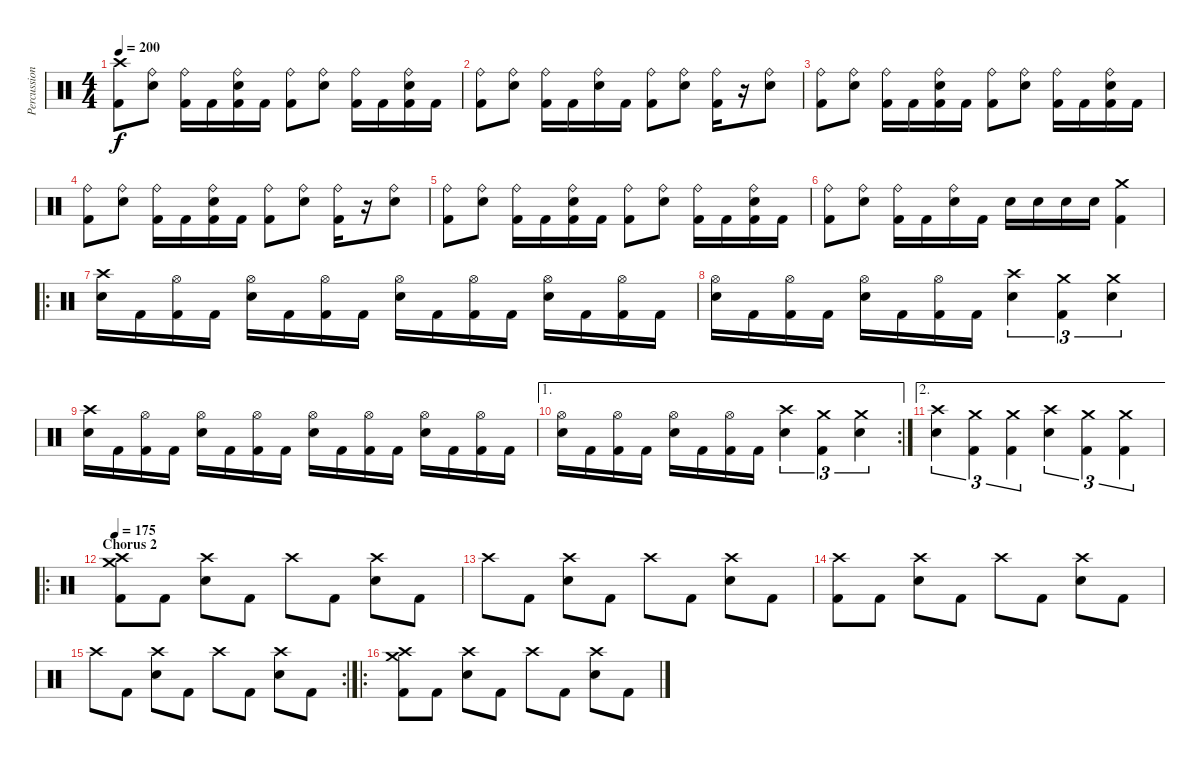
\track ("Percussion" "Percussion") {instrument percussion}
\staff {score}
\articulation defaults
\ts (4 4)
\tempo 200
\clef neutral
\ks c
("Crash high (hit)" "Kick (hit) 2").8{dy f} ("Ride (bell)" "Electric Snare (hit)").8 ("Ride (bell)" "Kick (hit) 2").16 "Kick (hit) 2".16 ("Ride (bell)" "Electric Snare (hit)" "Kick (hit) 2").16 "Kick (hit) 2".16 ("Ride (bell)" "Kick (hit) 2").8 ("Ride (bell)" "Electric Snare (hit)").8 ("Ride (bell)" "Kick (hit) 2").16 "Kick (hit) 2".16 ("Ride (bell)" "Electric Snare (hit)" "Kick (hit) 2").16 "Kick (hit) 2".16 |
("Ride (bell)" "Kick (hit) 2").8 ("Ride (bell)" "Electric Snare (hit)").8 ("Ride (bell)" "Kick (hit) 2").16 "Kick (hit) 2".16 ("Ride (bell)" "Electric Snare (hit)").16 "Kick (hit) 2".16 ("Ride (bell)" "Kick (hit) 2").8 ("Ride (bell)" "Electric Snare (hit)").8 ("Ride (bell)" "Kick (hit) 2").16 r.16 ("Ride (bell)" "Electric Snare (hit)").8 |
("Ride (bell)" "Kick (hit) 2").8 ("Ride (bell)" "Electric Snare (hit)").8 ("Ride (bell)" "Kick (hit) 2").16 "Kick (hit) 2".16 ("Ride (bell)" "Electric Snare (hit)" "Kick (hit) 2").16 "Kick (hit) 2".16 ("Ride (bell)" "Kick (hit) 2").8 ("Ride (bell)" "Electric Snare (hit)").8 ("Ride (bell)" "Kick (hit) 2").16 "Kick (hit) 2".16 ("Ride (bell)" "Electric Snare (hit)" "Kick (hit) 2").16 "Kick (hit) 2".16 |
("Ride (bell)" "Kick (hit) 2").8 ("Ride (bell)" "Electric Snare (hit)").8 ("Ride (bell)" "Kick (hit) 2").16 "Kick (hit) 2".16 ("Ride (bell)" "Electric Snare (hit)" "Kick (hit) 2").16 "Kick (hit) 2".16 ("Ride (bell)" "Kick (hit) 2").8 ("Ride (bell)" "Electric Snare (hit)").8 ("Ride (bell)" "Kick (hit) 2").16 r.16 ("Ride (bell)" "Electric Snare (hit)").8 |
("Ride (bell)" "Kick (hit) 2").8 ("Ride (bell)" "Electric Snare (hit)").8 ("Ride (bell)" "Kick (hit) 2").16 "Kick (hit) 2".16 ("Ride (bell)" "Electric Snare (hit)" "Kick (hit) 2").16 "Kick (hit) 2".16 ("Ride (bell)" "Kick (hit) 2").8 ("Ride (bell)" "Electric Snare (hit)").8 ("Ride (bell)" "Kick (hit) 2").16 "Kick (hit) 2".16 ("Ride (bell)" "Electric Snare (hit)" "Kick (hit) 2").16 "Kick (hit) 2".16 |
("Ride (bell)" "Kick (hit) 2").8 ("Ride (bell)" "Electric Snare (hit)").8 ("Ride (bell)" "Kick (hit) 2").16 "Kick (hit) 2".16 ("Ride (bell)" "Electric Snare (hit)").16 "Kick (hit) 2".16 "Electric Snare (hit)".16 "Electric Snare (hit)".16 "Electric Snare (hit)".16 "Electric Snare (hit)".16 ("Crash medium (hit)" "Kick (hit) 2").4 |
\ro
("Crash high (hit)" "Electric Snare (hit)").16 "Kick (hit) 2".16 ("Hi-Hat (open)" "Kick (hit) 2").16 "Kick (hit) 2".16 ("Hi-Hat (open)" "Electric Snare (hit)").16 "Kick (hit) 2".16 ("Hi-Hat (open)" "Kick (hit) 2").16 "Kick (hit) 2".16 ("Hi-Hat (open)" "Electric Snare (hit)").16 "Kick (hit) 2".16 ("Hi-Hat (open)" "Kick (hit) 2").16 "Kick (hit) 2".16 ("Hi-Hat (open)" "Electric Snare (hit)").16 "Kick (hit) 2".16 ("Hi-Hat (open)" "Kick (hit) 2").16 "Kick (hit) 2".16 |
("Hi-Hat (open)" "Electric Snare (hit)").16 "Kick (hit) 2".16 ("Hi-Hat (open)" "Kick (hit) 2").16 "Kick (hit) 2".16 ("Hi-Hat (open)" "Electric Snare (hit)").16 "Kick (hit) 2".16 ("Hi-Hat (open)" "Kick (hit) 2").16 "Kick (hit) 2".16 ("Crash high (hit)" "Electric Snare (hit)").4{tu (3 2)} ("Crash medium (hit)" "Kick (hit) 2").4{tu (3 2)} ("Crash medium (hit)" "Electric Snare (hit)").4{tu (3 2)} |
("Crash high (hit)" "Electric Snare (hit)").16 "Kick (hit) 2".16 ("Hi-Hat (open)" "Kick (hit) 2").16 "Kick (hit) 2".16 ("Hi-Hat (open)" "Electric Snare (hit)").16 "Kick (hit) 2".16 ("Hi-Hat (open)" "Kick (hit) 2").16 "Kick (hit) 2".16 ("Hi-Hat (open)" "Electric Snare (hit)").16 "Kick (hit) 2".16 ("Hi-Hat (open)" "Kick (hit) 2").16 "Kick (hit) 2".16 ("Hi-Hat (open)" "Electric Snare (hit)").16 "Kick (hit) 2".16 ("Hi-Hat (open)" "Kick (hit) 2").16 "Kick (hit) 2".16 |
\ae 1
\rc 2
("Hi-Hat (open)" "Electric Snare (hit)").16 "Kick (hit) 2".16 ("Hi-Hat (open)" "Kick (hit) 2").16 "Kick (hit) 2".16 ("Hi-Hat (open)" "Electric Snare (hit)").16 "Kick (hit) 2".16 ("Hi-Hat (open)" "Kick (hit) 2").16 "Kick (hit) 2".16 ("Crash high (hit)" "Electric Snare (hit)").4{tu (3 2)} ("Crash medium (hit)" "Kick (hit) 2").4{tu (3 2)} ("Crash medium (hit)" "Electric Snare (hit)").4{tu (3 2)} |
\ae 2
("Crash high (hit)" "Electric Snare (hit)").4{tu (3 2)} ("Crash medium (hit)" "Kick (hit) 2").4{tu (3 2)} ("Crash medium (hit)" "Kick (hit) 2").4{tu (3 2)} ("Crash high (hit)" "Electric Snare (hit)").4{tu (3 2)} ("Crash medium (hit)" "Kick (hit) 2").4{tu (3 2)} ("Crash medium (hit)" "Kick (hit) 2").4{tu (3 2)} |
\ro
\section ("" "Chorus 2")
\tempo 175
("Crash high (hit)" "Crash medium (hit)" "Kick (hit) 2").8 "Kick (hit) 2".8 ("Crash high (hit)" "Electric Snare (hit)").8 "Kick (hit) 2".8 "Crash high (hit)".8 "Kick (hit) 2".8 ("Crash high (hit)" "Electric Snare (hit)").8 "Kick (hit) 2".8 |
"Crash high (hit)".8 "Kick (hit) 2".8 ("Crash high (hit)" "Electric Snare (hit)").8 "Kick (hit) 2".8 "Crash high (hit)".8 "Kick (hit) 2".8 ("Crash high (hit)" "Electric Snare (hit)").8 "Kick (hit) 2".8 |
("Crash high (hit)" "Kick (hit) 2").8 "Kick (hit) 2".8 ("Crash high (hit)" "Electric Snare (hit)").8 "Kick (hit) 2".8 "Crash high (hit)".8 "Kick (hit) 2".8 ("Crash high (hit)" "Electric Snare (hit)").8 "Kick (hit) 2".8 |
\rc 2 "Crash high (hit)".8 "Kick (hit) 2".8
("Crash high (hit)" "Electric Snare (hit)").8 "Kick (hit) 2".8 "Crash high (hit)".8 "Kick (hit) 2".8 ("Crash high (hit)" "Electric Snare (hit)").8 "Kick (hit) 2".8 |
\ro
("Crash high (hit)" "Crash medium (hit)" "Kick (hit) 2").8 "Kick (hit) 2".8 ("Crash high (hit)" "Electric Snare (hit)").8 "Kick (hit) 2".8 "Crash high (hit)".8 "Kick (hit) 2".8 ("Crash high (hit)" "Electric Snare (hit)").8 "Kick (hit) 2".8
